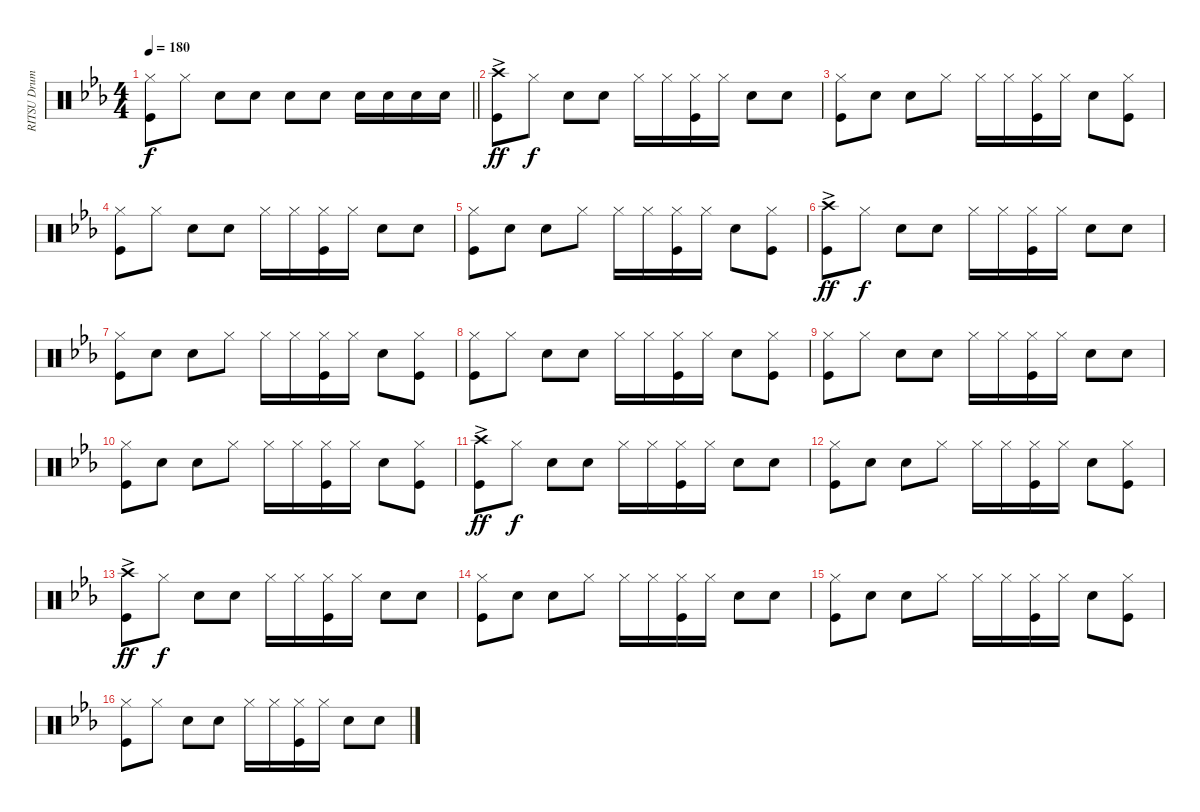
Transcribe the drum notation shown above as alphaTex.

\track ("RITSU Drums" "RITSU Drum") {instrument percussion}
\staff {score}
\articulation defaults
\ts (4 4)
\tempo 180
\clef neutral
\barLineRight lightlight
\ks cminor
("Hi-Hat (closed)" "Kick (hit)").8{dy f} "Hi-Hat (closed)".8 "Snare (hit) 2".8 "Snare (hit) 2".8 "Snare (hit) 2".8 "Snare (hit) 2".8 "Snare (hit) 2".16 "Snare (hit) 2".16 "Snare (hit) 2".16 "Snare (hit) 2".16 |
("Crash high (hit)"{ac} "Kick (hit)").8{dy ff} "Hi-Hat (closed)".8{dy f} "Snare (hit) 2".8 "Snare (hit) 2".8 "Hi-Hat (closed)".16 "Hi-Hat (closed)".16 ("Hi-Hat (closed)" "Kick (hit)").16 "Hi-Hat (closed)".16 "Snare (hit) 2".8 "Snare (hit) 2".8 |
("Hi-Hat (closed)" "Kick (hit)").8 "Snare (hit) 2".8 "Snare (hit) 2".8 "Hi-Hat (closed)".8 "Hi-Hat (closed)".16 "Hi-Hat (closed)".16 ("Hi-Hat (closed)" "Kick (hit)").16 "Hi-Hat (closed)".16 "Snare (hit) 2".8 ("Hi-Hat (closed)" "Kick (hit)").8 |
("Hi-Hat (closed)" "Kick (hit)").8 "Hi-Hat (closed)".8 "Snare (hit) 2".8 "Snare (hit) 2".8 "Hi-Hat (closed)".16 "Hi-Hat (closed)".16 ("Hi-Hat (closed)" "Kick (hit)").16 "Hi-Hat (closed)".16 "Snare (hit) 2".8 "Snare (hit) 2".8 |
("Hi-Hat (closed)" "Kick (hit)").8 "Snare (hit) 2".8 "Snare (hit) 2".8 "Hi-Hat (closed)".8 "Hi-Hat (closed)".16 "Hi-Hat (closed)".16 ("Hi-Hat (closed)" "Kick (hit)").16 "Hi-Hat (closed)".16 "Snare (hit) 2".8 ("Hi-Hat (closed)" "Kick (hit)").8 |
("Crash high (hit)"{ac} "Kick (hit)").8{dy ff} "Hi-Hat (closed)".8{dy f} "Snare (hit) 2".8 "Snare (hit) 2".8 "Hi-Hat (closed)".16 "Hi-Hat (closed)".16 ("Hi-Hat (closed)" "Kick (hit)").16 "Hi-Hat (closed)".16 "Snare (hit) 2".8 "Snare (hit) 2".8 |
("Hi-Hat (closed)" "Kick (hit)").8 "Snare (hit) 2".8 "Snare (hit) 2".8 "Hi-Hat (closed)".8 "Hi-Hat (closed)".16 "Hi-Hat (closed)".16 ("Hi-Hat (closed)" "Kick (hit)").16 "Hi-Hat (closed)".16 "Snare (hit) 2".8 ("Hi-Hat (closed)" "Kick (hit)").8 |
("Hi-Hat (closed)" "Kick (hit)").8 "Hi-Hat (closed)".8 "Snare (hit) 2".8 "Snare (hit) 2".8 "Hi-Hat (closed)".16 "Hi-Hat (closed)".16 ("Hi-Hat (closed)" "Kick (hit)").16 "Hi-Hat (closed)".16 "Snare (hit) 2".8 ("Hi-Hat (closed)" "Kick (hit)").8 |
("Hi-Hat (closed)" "Kick (hit)").8 "Hi-Hat (closed)".8 "Snare (hit) 2".8 "Snare (hit) 2".8 "Hi-Hat (closed)".16 "Hi-Hat (closed)".16 ("Hi-Hat (closed)" "Kick (hit)").16 "Hi-Hat (closed)".16 "Snare (hit) 2".8 "Snare (hit) 2".8 |
("Hi-Hat (closed)" "Kick (hit)").8 "Snare (hit) 2".8 "Snare (hit) 2".8 "Hi-Hat (closed)".8 "Hi-Hat (closed)".16 "Hi-Hat (closed)".16 ("Hi-Hat (closed)" "Kick (hit)").16 "Hi-Hat (closed)".16 "Snare (hit) 2".8 ("Hi-Hat (closed)" "Kick (hit)").8 |
("Crash high (hit)"{ac} "Kick (hit)").8{dy ff} "Hi-Hat (closed)".8{dy f} "Snare (hit) 2".8 "Snare (hit) 2".8 "Hi-Hat (closed)".16 "Hi-Hat (closed)".16 ("Hi-Hat (closed)" "Kick (hit)").16 "Hi-Hat (closed)".16 "Snare (hit) 2".8 "Snare (hit) 2".8 |
("Hi-Hat (closed)" "Kick (hit)").8 "Snare (hit) 2".8 "Snare (hit) 2".8 "Hi-Hat (closed)".8 "Hi-Hat (closed)".16 "Hi-Hat (closed)".16 ("Hi-Hat (closed)" "Kick (hit)").16 "Hi-Hat (closed)".16 "Snare (hit) 2".8 ("Hi-Hat (closed)" "Kick (hit)").8 |
("Crash high (hit)"{ac} "Kick (hit)").8{dy ff} "Hi-Hat (closed)".8{dy f} "Snare (hit) 2".8 "Snare (hit) 2".8 "Hi-Hat (closed)".16 "Hi-Hat (closed)".16 ("Hi-Hat (closed)" "Kick (hit)").16 "Hi-Hat (closed)".16 "Snare (hit) 2".8 "Snare (hit) 2".8 |
("Kick (hit)" "Hi-Hat (closed)").8 "Snare (hit) 2".8 "Snare (hit) 2".8 "Hi-Hat (closed)".8 "Hi-Hat (closed)".16 "Hi-Hat (closed)".16 ("Hi-Hat (closed)" "Kick (hit)").16 "Hi-Hat (closed)".16 "Snare (hit) 2".8 "Snare (hit) 2".8 |
("Hi-Hat (closed)" "Kick (hit)").8 "Snare (hit) 2".8 "Snare (hit) 2".8 "Hi-Hat (closed)".8 "Hi-Hat (closed)".16 "Hi-Hat (closed)".16 ("Hi-Hat (closed)" "Kick (hit)").16 "Hi-Hat (closed)".16 "Snare (hit) 2".8 ("Hi-Hat (closed)" "Kick (hit)").8 |
("Hi-Hat (closed)" "Kick (hit)").8 "Hi-Hat (closed)".8 "Snare (hit) 2".8 "Snare (hit) 2".8 "Hi-Hat (closed)".16 "Hi-Hat (closed)".16 ("Hi-Hat (closed)" "Kick (hit)").16 "Hi-Hat (closed)".16 "Snare (hit) 2".8 "Snare (hit) 2".8
